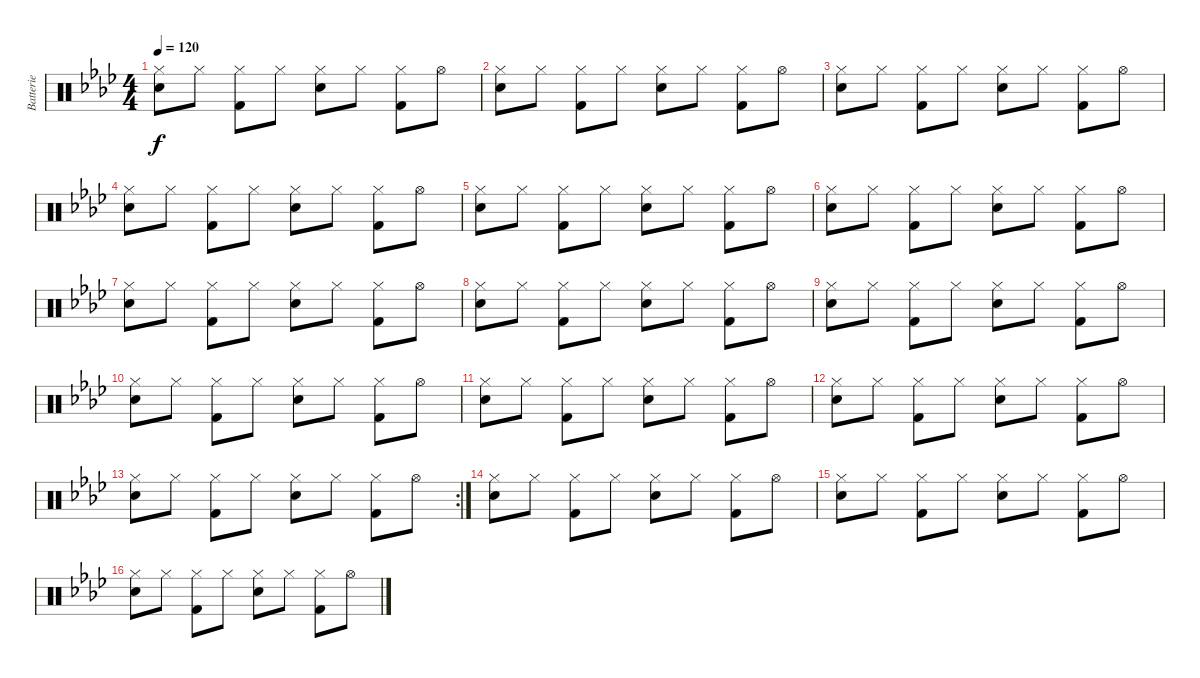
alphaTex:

\track ("Batterie" "Batterie") {instrument percussion}
\staff {score}
\articulation defaults
\ts (4 4)
\tempo 120
\clef neutral
\ks ab
("Hi-Hat (closed)" "Snare (hit) 2").8{dy f} "Hi-Hat (closed)".8 ("Hi-Hat (closed)" "Kick (hit) 2").8 "Hi-Hat (closed)".8 ("Hi-Hat (closed)" "Snare (hit) 2").8 "Hi-Hat (closed)".8 ("Hi-Hat (closed)" "Kick (hit) 2").8 "Hi-Hat (open)".8 |
("Hi-Hat (closed)" "Snare (hit) 2").8 "Hi-Hat (closed)".8 ("Hi-Hat (closed)" "Kick (hit) 2").8 "Hi-Hat (closed)".8 ("Hi-Hat (closed)" "Snare (hit) 2").8 "Hi-Hat (closed)".8 ("Hi-Hat (closed)" "Kick (hit) 2").8 "Hi-Hat (open)".8 |
("Hi-Hat (closed)" "Snare (hit) 2").8 "Hi-Hat (closed)".8 ("Hi-Hat (closed)" "Kick (hit) 2").8 "Hi-Hat (closed)".8 ("Hi-Hat (closed)" "Snare (hit) 2").8 "Hi-Hat (closed)".8 ("Hi-Hat (closed)" "Kick (hit) 2").8 "Hi-Hat (open)".8 |
("Hi-Hat (closed)" "Snare (hit) 2").8 "Hi-Hat (closed)".8 ("Hi-Hat (closed)" "Kick (hit) 2").8 "Hi-Hat (closed)".8 ("Hi-Hat (closed)" "Snare (hit) 2").8 "Hi-Hat (closed)".8 ("Hi-Hat (closed)" "Kick (hit) 2").8 "Hi-Hat (open)".8 |
("Hi-Hat (closed)" "Snare (hit) 2").8 "Hi-Hat (closed)".8 ("Hi-Hat (closed)" "Kick (hit) 2").8 "Hi-Hat (closed)".8 ("Hi-Hat (closed)" "Snare (hit) 2").8 "Hi-Hat (closed)".8 ("Hi-Hat (closed)" "Kick (hit) 2").8 "Hi-Hat (open)".8 |
("Hi-Hat (closed)" "Snare (hit) 2").8 "Hi-Hat (closed)".8 ("Hi-Hat (closed)" "Kick (hit) 2").8 "Hi-Hat (closed)".8 ("Hi-Hat (closed)" "Snare (hit) 2").8 "Hi-Hat (closed)".8 ("Hi-Hat (closed)" "Kick (hit) 2").8 "Hi-Hat (open)".8 |
("Hi-Hat (closed)" "Snare (hit) 2").8 "Hi-Hat (closed)".8 ("Hi-Hat (closed)" "Kick (hit) 2").8 "Hi-Hat (closed)".8 ("Hi-Hat (closed)" "Snare (hit) 2").8 "Hi-Hat (closed)".8 ("Hi-Hat (closed)" "Kick (hit) 2").8 "Hi-Hat (open)".8 |
("Hi-Hat (closed)" "Snare (hit) 2").8 "Hi-Hat (closed)".8 ("Hi-Hat (closed)" "Kick (hit) 2").8 "Hi-Hat (closed)".8 ("Hi-Hat (closed)" "Snare (hit) 2").8 "Hi-Hat (closed)".8 ("Hi-Hat (closed)" "Kick (hit) 2").8 "Hi-Hat (open)".8 |
("Hi-Hat (closed)" "Snare (hit) 2").8 "Hi-Hat (closed)".8 ("Hi-Hat (closed)" "Kick (hit) 2").8 "Hi-Hat (closed)".8 ("Hi-Hat (closed)" "Snare (hit) 2").8 "Hi-Hat (closed)".8 ("Hi-Hat (closed)" "Kick (hit) 2").8 "Hi-Hat (open)".8 |
("Hi-Hat (closed)" "Snare (hit) 2").8 "Hi-Hat (closed)".8 ("Hi-Hat (closed)" "Kick (hit) 2").8 "Hi-Hat (closed)".8 ("Hi-Hat (closed)" "Snare (hit) 2").8 "Hi-Hat (closed)".8 ("Hi-Hat (closed)" "Kick (hit) 2").8 "Hi-Hat (open)".8 |
("Hi-Hat (closed)" "Snare (hit) 2").8 "Hi-Hat (closed)".8 ("Hi-Hat (closed)" "Kick (hit) 2").8 "Hi-Hat (closed)".8 ("Hi-Hat (closed)" "Snare (hit) 2").8 "Hi-Hat (closed)".8 ("Hi-Hat (closed)" "Kick (hit) 2").8 "Hi-Hat (open)".8 |
("Hi-Hat (closed)" "Snare (hit) 2").8 "Hi-Hat (closed)".8 ("Hi-Hat (closed)" "Kick (hit) 2").8 "Hi-Hat (closed)".8 ("Hi-Hat (closed)" "Snare (hit) 2").8 "Hi-Hat (closed)".8 ("Hi-Hat (closed)" "Kick (hit) 2").8 "Hi-Hat (open)".8 |
\rc 2
("Hi-Hat (closed)" "Snare (hit) 2").8 "Hi-Hat (closed)".8 ("Hi-Hat (closed)" "Kick (hit) 2").8 "Hi-Hat (closed)".8 ("Hi-Hat (closed)" "Snare (hit) 2").8 "Hi-Hat (closed)".8 ("Hi-Hat (closed)" "Kick (hit) 2").8 "Hi-Hat (open)".8 |
("Hi-Hat (closed)" "Snare (hit) 2").8 "Hi-Hat (closed)".8 ("Hi-Hat (closed)" "Kick (hit) 2").8 "Hi-Hat (closed)".8 ("Hi-Hat (closed)" "Snare (hit) 2").8 "Hi-Hat (closed)".8 ("Hi-Hat (closed)" "Kick (hit) 2").8 "Hi-Hat (open)".8 |
("Hi-Hat (closed)" "Snare (hit) 2").8 "Hi-Hat (closed)".8 ("Hi-Hat (closed)" "Kick (hit) 2").8 "Hi-Hat (closed)".8 ("Hi-Hat (closed)" "Snare (hit) 2").8 "Hi-Hat (closed)".8 ("Hi-Hat (closed)" "Kick (hit) 2").8 "Hi-Hat (open)".8 |
("Hi-Hat (closed)" "Snare (hit) 2").8 "Hi-Hat (closed)".8 ("Hi-Hat (closed)" "Kick (hit) 2").8 "Hi-Hat (closed)".8 ("Hi-Hat (closed)" "Snare (hit) 2").8 "Hi-Hat (closed)".8 ("Hi-Hat (closed)" "Kick (hit) 2").8 "Hi-Hat (open)".8
